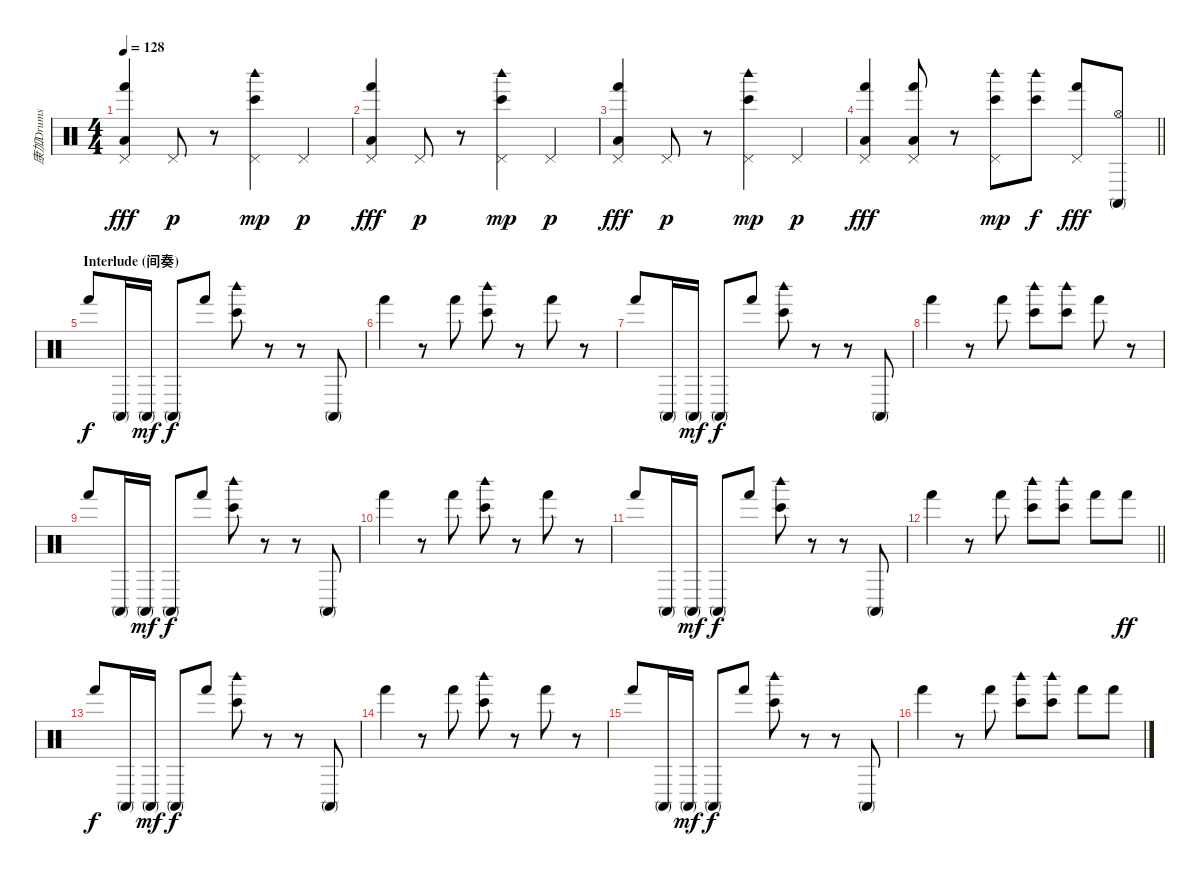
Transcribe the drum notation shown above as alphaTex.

\track ("康加Drums" "康加Drums") {instrument percussion}
\staff {score}
\articulation defaults
\ts (4 4)
\tempo 128
\clef neutral
\ks c
("Pedal Hi-Hat (hit)" "Hand (hit)" "Low Floor Tom (hit)").4{dy fff} "Pedal Hi-Hat (hit)".8{dy p} r.8 ("Bongo High (hit)" "Woodblock high (hit)" "Pedal Hi-Hat (hit)").4{dy mp} "Pedal Hi-Hat (hit)".4{dy p} |
("Pedal Hi-Hat (hit)" "Hand (hit)" "Low Floor Tom (hit)").4{dy fff} "Pedal Hi-Hat (hit)".8{dy p} r.8 ("Bongo High (hit)" "Woodblock high (hit)" "Pedal Hi-Hat (hit)").4{dy mp} "Pedal Hi-Hat (hit)".4{dy p} |
("Pedal Hi-Hat (hit)" "Hand (hit)" "Low Floor Tom (hit)").4{dy fff} "Pedal Hi-Hat (hit)".8{dy p} r.8 ("Bongo High (hit)" "Woodblock high (hit)" "Pedal Hi-Hat (hit)").4{dy mp} "Pedal Hi-Hat (hit)".4{dy p} |
\barLineRight lightlight
("Pedal Hi-Hat (hit)" "Hand (hit)" "Low Floor Tom (hit)").4{dy fff} ("Pedal Hi-Hat (hit)" "Hand (hit)" "Low Floor Tom (hit)").8 r.8 ("Bongo High (hit)" "Woodblock high (hit)" "Pedal Hi-Hat (hit)").8{dy mp} ("Bongo High (hit)" "Woodblock high (hit)").8{dy f} ("Pedal Hi-Hat (hit)" "Hand (hit)").8{dy fff} ("Hi-Hat (open)" "Conga high (mute)").8 |
\section ("" "Interlude (间奏)")
"Hand (hit)".8{dy f} "Conga high (mute)".16 "Conga high (mute)".16{dy mf} "Conga high (mute)".8{dy f} "Hand (hit)".8 ("Bongo High (hit)" "Woodblock high (hit)").8 r.8 r.8 "Conga high (mute)".8 |
"Hand (hit)".4 r.8 "Hand (hit)".8 ("Bongo High (hit)" "Woodblock high (hit)").8 r.8 "Hand (hit)".8 r.8 |
"Hand (hit)".8 "Conga high (mute)".16 "Conga high (mute)".16{dy mf} "Conga high (mute)".8{dy f} "Hand (hit)".8 ("Bongo High (hit)" "Woodblock high (hit)").8 r.8 r.8 "Conga high (mute)".8 |
"Hand (hit)".4 r.8 "Hand (hit)".8 ("Bongo High (hit)" "Woodblock high (hit)").8 ("Bongo High (hit)" "Woodblock high (hit)").8 "Hand (hit)".8 r.8 |
"Hand (hit)".8 "Conga high (mute)".16 "Conga high (mute)".16{dy mf} "Conga high (mute)".8{dy f} "Hand (hit)".8 ("Bongo High (hit)" "Woodblock high (hit)").8 r.8 r.8 "Conga high (mute)".8 |
"Hand (hit)".4 r.8 "Hand (hit)".8 ("Bongo High (hit)" "Woodblock high (hit)").8 r.8 "Hand (hit)".8 r.8 |
"Hand (hit)".8 "Conga high (mute)".16 "Conga high (mute)".16{dy mf} "Conga high (mute)".8{dy f} "Hand (hit)".8 ("Bongo High (hit)" "Woodblock high (hit)").8 r.8 r.8 "Conga high (mute)".8 |
\barLineRight lightlight "Hand (hit)".4
r.8 "Hand (hit)".8 ("Bongo High (hit)" "Woodblock high (hit)").8 ("Bongo High (hit)" "Woodblock high (hit)").8 "Hand (hit)".8 "Hand (hit)".8{dy ff} |
"Hand (hit)".8{dy f} "Conga high (mute)".16 "Conga high (mute)".16{dy mf} "Conga high (mute)".8{dy f} "Hand (hit)".8 ("Bongo High (hit)" "Woodblock high (hit)").8 r.8 r.8 "Conga high (mute)".8 |
"Hand (hit)".4 r.8 "Hand (hit)".8 ("Bongo High (hit)" "Woodblock high (hit)").8 r.8 "Hand (hit)".8 r.8 |
"Hand (hit)".8 "Conga high (mute)".16 "Conga high (mute)".16{dy mf} "Conga high (mute)".8{dy f} "Hand (hit)".8 ("Bongo High (hit)" "Woodblock high (hit)").8 r.8 r.8 "Conga high (mute)".8 |
"Hand (hit)".4 r.8 "Hand (hit)".8 ("Bongo High (hit)" "Woodblock high (hit)").8 ("Bongo High (hit)" "Woodblock high (hit)").8 "Hand (hit)".8 "Hand (hit)".8
